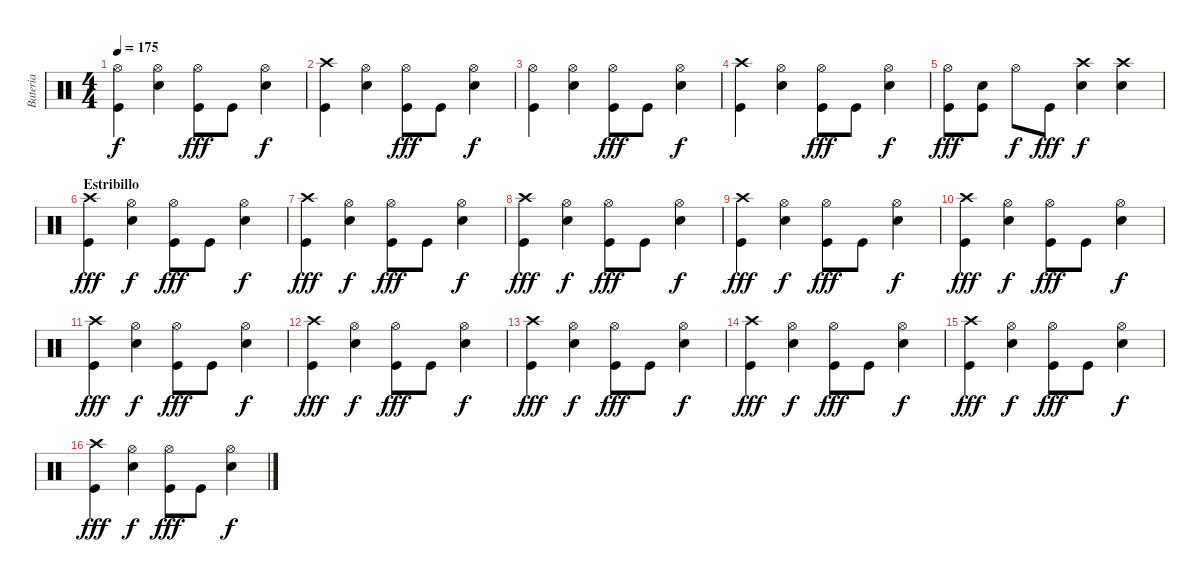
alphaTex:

\track ("Bateria" "Bateria") {instrument percussion}
\staff {score}
\articulation defaults
\ts (4 4)
\tempo 175
\clef neutral
\ks c
("Hi-Hat (open)" "Kick (hit)").4{dy f} ("Hi-Hat (open)" "Electric Snare (hit)").4 ("Hi-Hat (open)" "Kick (hit)").8{dy fff} "Kick (hit)".8 ("Hi-Hat (open)" "Electric Snare (hit)").4{dy f} |
("Crash high (hit)" "Kick (hit)").4 ("Hi-Hat (open)" "Electric Snare (hit)").4 ("Hi-Hat (open)" "Kick (hit)").8{dy fff} "Kick (hit)".8 ("Hi-Hat (open)" "Electric Snare (hit)").4{dy f} |
("Hi-Hat (open)" "Kick (hit)").4 ("Hi-Hat (open)" "Electric Snare (hit)").4 ("Hi-Hat (open)" "Kick (hit)").8{dy fff} "Kick (hit)".8 ("Hi-Hat (open)" "Electric Snare (hit)").4{dy f} |
("Crash high (hit)" "Kick (hit)").4 ("Hi-Hat (open)" "Electric Snare (hit)").4 ("Hi-Hat (open)" "Kick (hit)").8{dy fff} "Kick (hit)".8 ("Hi-Hat (open)" "Electric Snare (hit)").4{dy f} |
("Hi-Hat (open)" "Kick (hit)").8{dy fff} ("Electric Snare (hit)" "Kick (hit)").8 "Hi-Hat (open)".8{dy f} "Kick (hit)".8{dy fff} ("Crash high (hit)" "Electric Snare (hit)").4{dy f} ("Crash high (hit)" "Electric Snare (hit)").4 |
\section ("" "Estribillo")
("Crash high (hit)" "Kick (hit)").4{dy fff} ("Hi-Hat (open)" "Electric Snare (hit)").4{dy f} ("Hi-Hat (open)" "Kick (hit)").8{dy fff} "Kick (hit)".8 ("Hi-Hat (open)" "Electric Snare (hit)").4{dy f} |
("Crash high (hit)" "Kick (hit)").4{dy fff} ("Hi-Hat (open)" "Electric Snare (hit)").4{dy f} ("Hi-Hat (open)" "Kick (hit)").8{dy fff} "Kick (hit)".8 ("Hi-Hat (open)" "Electric Snare (hit)").4{dy f} |
("Crash high (hit)" "Kick (hit)").4{dy fff} ("Hi-Hat (open)" "Electric Snare (hit)").4{dy f} ("Hi-Hat (open)" "Kick (hit)").8{dy fff} "Kick (hit)".8 ("Hi-Hat (open)" "Electric Snare (hit)").4{dy f} |
("Crash high (hit)" "Kick (hit)").4{dy fff} ("Hi-Hat (open)" "Electric Snare (hit)").4{dy f} ("Hi-Hat (open)" "Kick (hit)").8{dy fff} "Kick (hit)".8 ("Hi-Hat (open)" "Electric Snare (hit)").4{dy f} |
("Crash high (hit)" "Kick (hit)").4{dy fff} ("Hi-Hat (open)" "Electric Snare (hit)").4{dy f} ("Hi-Hat (open)" "Kick (hit)").8{dy fff} "Kick (hit)".8 ("Hi-Hat (open)" "Electric Snare (hit)").4{dy f} |
("Crash high (hit)" "Kick (hit)").4{dy fff} ("Hi-Hat (open)" "Electric Snare (hit)").4{dy f} ("Hi-Hat (open)" "Kick (hit)").8{dy fff} "Kick (hit)".8 ("Hi-Hat (open)" "Electric Snare (hit)").4{dy f} |
("Crash high (hit)" "Kick (hit)").4{dy fff} ("Hi-Hat (open)" "Electric Snare (hit)").4{dy f} ("Hi-Hat (open)" "Kick (hit)").8{dy fff} "Kick (hit)".8 ("Hi-Hat (open)" "Electric Snare (hit)").4{dy f} |
("Crash high (hit)" "Kick (hit)").4{dy fff} ("Hi-Hat (open)" "Electric Snare (hit)").4{dy f} ("Hi-Hat (open)" "Kick (hit)").8{dy fff} "Kick (hit)".8 ("Hi-Hat (open)" "Electric Snare (hit)").4{dy f} |
("Crash high (hit)" "Kick (hit)").4{dy fff} ("Hi-Hat (open)" "Electric Snare (hit)").4{dy f} ("Hi-Hat (open)" "Kick (hit)").8{dy fff} "Kick (hit)".8 ("Hi-Hat (open)" "Electric Snare (hit)").4{dy f} |
("Crash high (hit)" "Kick (hit)").4{dy fff} ("Hi-Hat (open)" "Electric Snare (hit)").4{dy f} ("Hi-Hat (open)" "Kick (hit)").8{dy fff} "Kick (hit)".8 ("Hi-Hat (open)" "Electric Snare (hit)").4{dy f} |
("Crash high (hit)" "Kick (hit)").4{dy fff} ("Hi-Hat (open)" "Electric Snare (hit)").4{dy f} ("Hi-Hat (open)" "Kick (hit)").8{dy fff} "Kick (hit)".8 ("Hi-Hat (open)" "Electric Snare (hit)").4{dy f}
